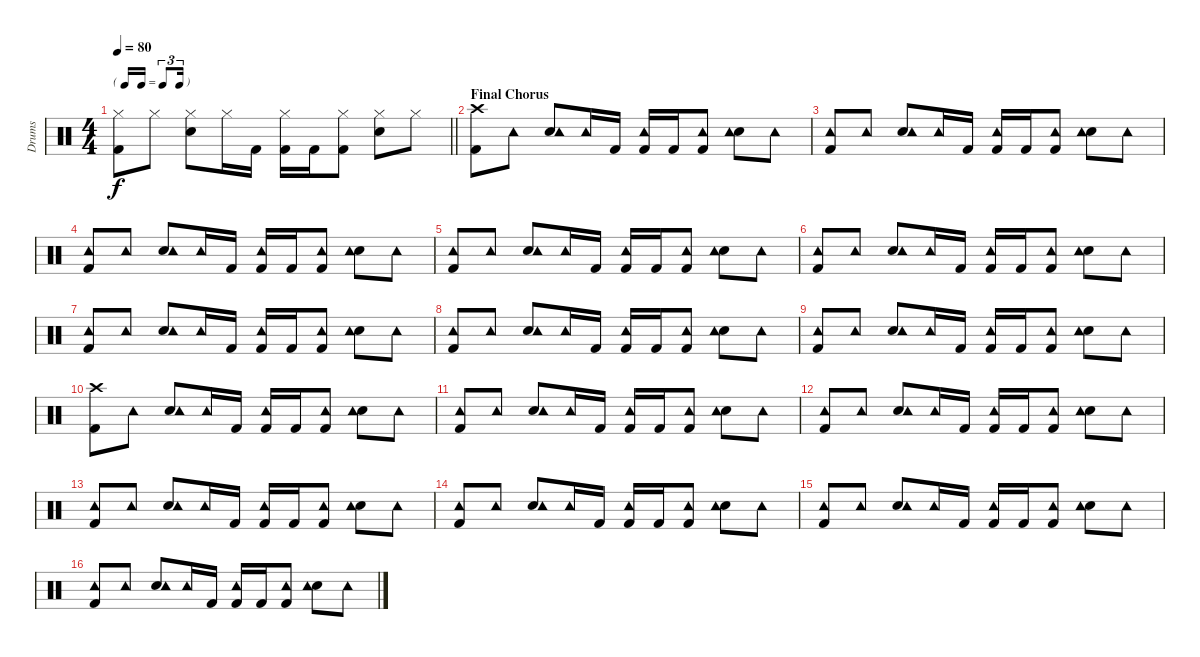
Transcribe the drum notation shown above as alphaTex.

\track ("Drums" "Drums") {instrument percussion}
\staff {score}
\articulation defaults
\ts (4 4)
\tf triplet16th
\tempo 80
\clef neutral
\barLineRight lightlight
\ks c
("Hi-Hat (closed)" "Kick (hit) 2").8{dy f} "Hi-Hat (closed)".8 ("Electric Snare (hit)" "Hi-Hat (closed)").8 "Hi-Hat (closed)".16 "Kick (hit) 2".16 ("Kick (hit) 2" "Hi-Hat (closed)").16 "Kick (hit) 2".16 ("Kick (hit) 2" "Hi-Hat (closed)").8 ("Electric Snare (hit)" "Hi-Hat (closed)").8 "Hi-Hat (closed)".8 |
\section ("" "Final Chorus")
("Crash high (hit)" "Kick (hit) 2").8 "Tambourine (hit)".8 ("Electric Snare (hit)" "Tambourine (hit)").8 "Tambourine (hit)".16 "Kick (hit) 2".16 ("Kick (hit) 2" "Tambourine (hit)").16 "Kick (hit) 2".16 ("Kick (hit) 2" "Tambourine (hit)").8 ("Electric Snare (hit)" "Tambourine (hit)").8 "Tambourine (hit)".8 |
("Tambourine (hit)" "Kick (hit) 2").8 "Tambourine (hit)".8 ("Electric Snare (hit)" "Tambourine (hit)").8 "Tambourine (hit)".16 "Kick (hit) 2".16 ("Kick (hit) 2" "Tambourine (hit)").16 "Kick (hit) 2".16 ("Kick (hit) 2" "Tambourine (hit)").8 ("Electric Snare (hit)" "Tambourine (hit)").8 "Tambourine (hit)".8 |
("Tambourine (hit)" "Kick (hit) 2").8 "Tambourine (hit)".8 ("Electric Snare (hit)" "Tambourine (hit)").8 "Tambourine (hit)".16 "Kick (hit) 2".16 ("Kick (hit) 2" "Tambourine (hit)").16 "Kick (hit) 2".16 ("Kick (hit) 2" "Tambourine (hit)").8 ("Electric Snare (hit)" "Tambourine (hit)").8 "Tambourine (hit)".8 |
("Tambourine (hit)" "Kick (hit) 2").8 "Tambourine (hit)".8 ("Electric Snare (hit)" "Tambourine (hit)").8 "Tambourine (hit)".16 "Kick (hit) 2".16 ("Kick (hit) 2" "Tambourine (hit)").16 "Kick (hit) 2".16 ("Kick (hit) 2" "Tambourine (hit)").8 ("Electric Snare (hit)" "Tambourine (hit)").8 "Tambourine (hit)".8 |
("Tambourine (hit)" "Kick (hit) 2").8 "Tambourine (hit)".8 ("Electric Snare (hit)" "Tambourine (hit)").8 "Tambourine (hit)".16 "Kick (hit) 2".16 ("Kick (hit) 2" "Tambourine (hit)").16 "Kick (hit) 2".16 ("Kick (hit) 2" "Tambourine (hit)").8 ("Electric Snare (hit)" "Tambourine (hit)").8 "Tambourine (hit)".8 |
("Tambourine (hit)" "Kick (hit) 2").8 "Tambourine (hit)".8 ("Electric Snare (hit)" "Tambourine (hit)").8 "Tambourine (hit)".16 "Kick (hit) 2".16 ("Kick (hit) 2" "Tambourine (hit)").16 "Kick (hit) 2".16 ("Kick (hit) 2" "Tambourine (hit)").8 ("Electric Snare (hit)" "Tambourine (hit)").8 "Tambourine (hit)".8 |
("Tambourine (hit)" "Kick (hit) 2").8 "Tambourine (hit)".8 ("Electric Snare (hit)" "Tambourine (hit)").8 "Tambourine (hit)".16 "Kick (hit) 2".16 ("Kick (hit) 2" "Tambourine (hit)").16 "Kick (hit) 2".16 ("Kick (hit) 2" "Tambourine (hit)").8 ("Electric Snare (hit)" "Tambourine (hit)").8 "Tambourine (hit)".8 |
("Tambourine (hit)" "Kick (hit) 2").8 "Tambourine (hit)".8 ("Electric Snare (hit)" "Tambourine (hit)").8 "Tambourine (hit)".16 "Kick (hit) 2".16 ("Kick (hit) 2" "Tambourine (hit)").16 "Kick (hit) 2".16 ("Kick (hit) 2" "Tambourine (hit)").8 ("Electric Snare (hit)" "Tambourine (hit)").8 "Tambourine (hit)".8 |
("Crash high (hit)" "Kick (hit) 2").8 "Tambourine (hit)".8 ("Electric Snare (hit)" "Tambourine (hit)").8 "Tambourine (hit)".16 "Kick (hit) 2".16 ("Kick (hit) 2" "Tambourine (hit)").16 "Kick (hit) 2".16 ("Kick (hit) 2" "Tambourine (hit)").8 ("Electric Snare (hit)" "Tambourine (hit)").8 "Tambourine (hit)".8 |
("Tambourine (hit)" "Kick (hit) 2").8 "Tambourine (hit)".8 ("Electric Snare (hit)" "Tambourine (hit)").8 "Tambourine (hit)".16 "Kick (hit) 2".16 ("Kick (hit) 2" "Tambourine (hit)").16 "Kick (hit) 2".16 ("Kick (hit) 2" "Tambourine (hit)").8 ("Electric Snare (hit)" "Tambourine (hit)").8 "Tambourine (hit)".8 |
("Tambourine (hit)" "Kick (hit) 2").8 "Tambourine (hit)".8 ("Electric Snare (hit)" "Tambourine (hit)").8 "Tambourine (hit)".16 "Kick (hit) 2".16 ("Kick (hit) 2" "Tambourine (hit)").16 "Kick (hit) 2".16 ("Kick (hit) 2" "Tambourine (hit)").8 ("Electric Snare (hit)" "Tambourine (hit)").8 "Tambourine (hit)".8 |
("Tambourine (hit)" "Kick (hit) 2").8 "Tambourine (hit)".8 ("Electric Snare (hit)" "Tambourine (hit)").8 "Tambourine (hit)".16 "Kick (hit) 2".16 ("Kick (hit) 2" "Tambourine (hit)").16 "Kick (hit) 2".16 ("Kick (hit) 2" "Tambourine (hit)").8 ("Electric Snare (hit)" "Tambourine (hit)").8 "Tambourine (hit)".8 |
("Tambourine (hit)" "Kick (hit) 2").8 "Tambourine (hit)".8 ("Electric Snare (hit)" "Tambourine (hit)").8 "Tambourine (hit)".16 "Kick (hit) 2".16 ("Kick (hit) 2" "Tambourine (hit)").16 "Kick (hit) 2".16 ("Kick (hit) 2" "Tambourine (hit)").8 ("Electric Snare (hit)" "Tambourine (hit)").8 "Tambourine (hit)".8 |
("Tambourine (hit)" "Kick (hit) 2").8 "Tambourine (hit)".8 ("Electric Snare (hit)" "Tambourine (hit)").8 "Tambourine (hit)".16 "Kick (hit) 2".16 ("Kick (hit) 2" "Tambourine (hit)").16 "Kick (hit) 2".16 ("Kick (hit) 2" "Tambourine (hit)").8 ("Electric Snare (hit)" "Tambourine (hit)").8 "Tambourine (hit)".8 |
("Tambourine (hit)" "Kick (hit) 2").8 "Tambourine (hit)".8 ("Electric Snare (hit)" "Tambourine (hit)").8 "Tambourine (hit)".16 "Kick (hit) 2".16 ("Kick (hit) 2" "Tambourine (hit)").16 "Kick (hit) 2".16 ("Kick (hit) 2" "Tambourine (hit)").8 ("Electric Snare (hit)" "Tambourine (hit)").8 "Tambourine (hit)".8
